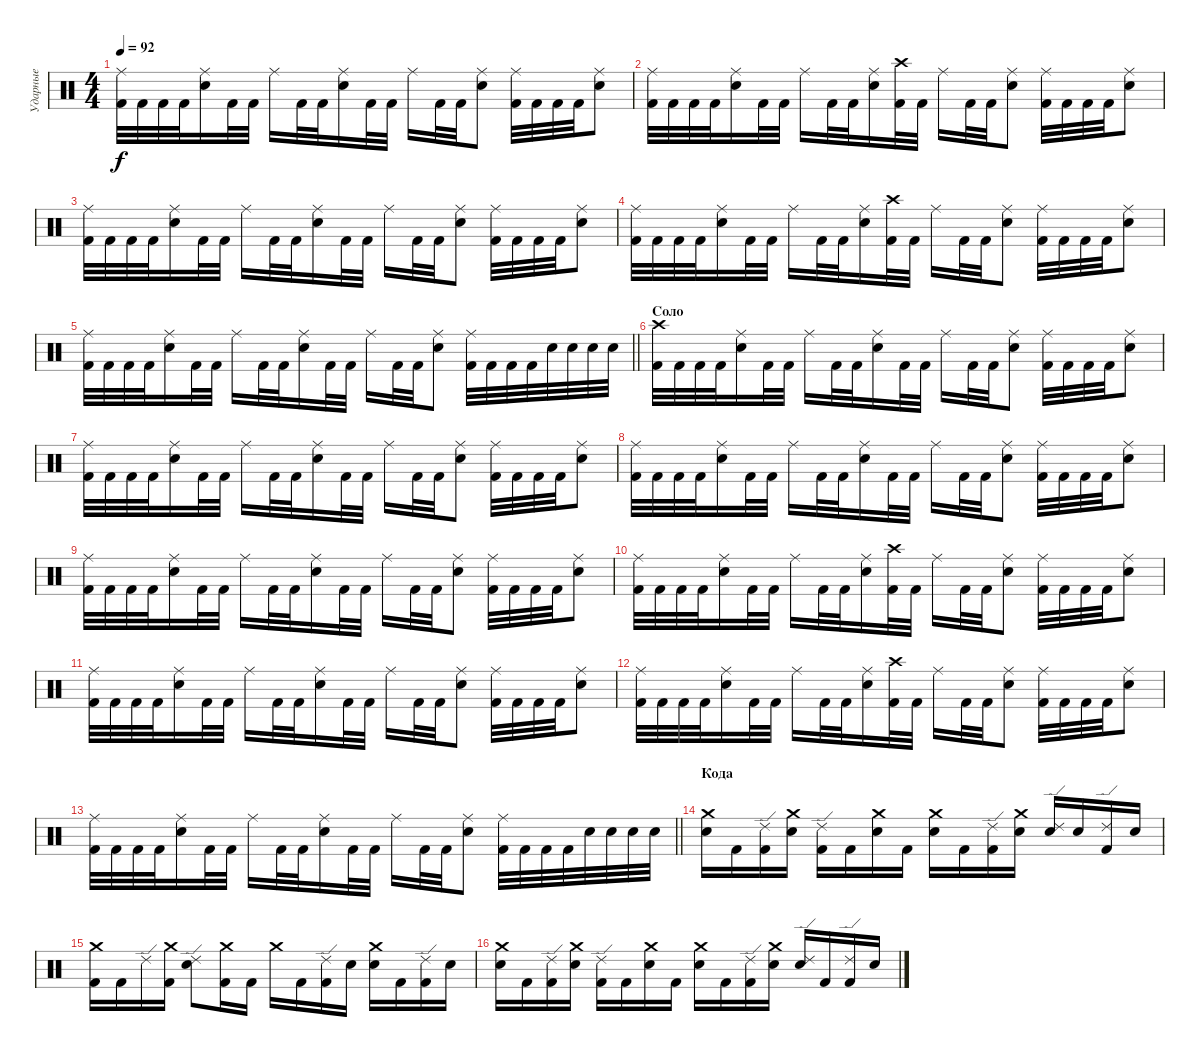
\track ("Ударные" "Ударные") {instrument percussion}
\staff {score}
\articulation defaults
\ts (4 4)
\tempo 92
\clef neutral
\ks c
("Ride (middle)" "Kick (hit) 2").32{dy f} "Kick (hit) 2".32 "Kick (hit) 2".32 "Kick (hit) 2".32 ("Ride (middle)" "Electric Snare (hit)").16 "Kick (hit) 2".32 "Kick (hit) 2".32 "Ride (middle)".16 "Kick (hit) 2".32 "Kick (hit) 2".32 ("Electric Snare (hit)" "Ride (middle)").16 "Kick (hit) 2".32 "Kick (hit) 2".32 "Ride (middle)".16 "Kick (hit) 2".32 "Kick (hit) 2".32 ("Electric Snare (hit)" "Ride (middle)").8 ("Kick (hit) 2" "Ride (middle)").32 "Kick (hit) 2".32 "Kick (hit) 2".32 "Kick (hit) 2".32 ("Electric Snare (hit)" "Ride (middle)").8 |
("Ride (middle)" "Kick (hit) 2").32 "Kick (hit) 2".32 "Kick (hit) 2".32 "Kick (hit) 2".32 ("Ride (middle)" "Electric Snare (hit)").16 "Kick (hit) 2".32 "Kick (hit) 2".32 "Ride (middle)".16 "Kick (hit) 2".32 "Kick (hit) 2".32 ("Electric Snare (hit)" "Ride (middle)").16 ("Crash high (hit)" "Kick (hit) 2").32 "Kick (hit) 2".32 "Ride (middle)".16 "Kick (hit) 2".32 "Kick (hit) 2".32 ("Electric Snare (hit)" "Ride (middle)").8 ("Kick (hit) 2" "Ride (middle)").32 "Kick (hit) 2".32 "Kick (hit) 2".32 "Kick (hit) 2".32 ("Electric Snare (hit)" "Ride (middle)").8 |
("Ride (middle)" "Kick (hit) 2").32 "Kick (hit) 2".32 "Kick (hit) 2".32 "Kick (hit) 2".32 ("Ride (middle)" "Electric Snare (hit)").16 "Kick (hit) 2".32 "Kick (hit) 2".32 "Ride (middle)".16 "Kick (hit) 2".32 "Kick (hit) 2".32 ("Electric Snare (hit)" "Ride (middle)").16 "Kick (hit) 2".32 "Kick (hit) 2".32 "Ride (middle)".16 "Kick (hit) 2".32 "Kick (hit) 2".32 ("Electric Snare (hit)" "Ride (middle)").8 ("Kick (hit) 2" "Ride (middle)").32 "Kick (hit) 2".32 "Kick (hit) 2".32 "Kick (hit) 2".32 ("Electric Snare (hit)" "Ride (middle)").8 |
("Ride (middle)" "Kick (hit) 2").32 "Kick (hit) 2".32 "Kick (hit) 2".32 "Kick (hit) 2".32 ("Ride (middle)" "Electric Snare (hit)").16 "Kick (hit) 2".32 "Kick (hit) 2".32 "Ride (middle)".16 "Kick (hit) 2".32 "Kick (hit) 2".32 ("Electric Snare (hit)" "Ride (middle)").16 ("Crash high (hit)" "Kick (hit) 2").32 "Kick (hit) 2".32 "Ride (middle)".16 "Kick (hit) 2".32 "Kick (hit) 2".32 ("Electric Snare (hit)" "Ride (middle)").8 ("Kick (hit) 2" "Ride (middle)").32 "Kick (hit) 2".32 "Kick (hit) 2".32 "Kick (hit) 2".32 ("Electric Snare (hit)" "Ride (middle)").8 |
\barLineRight lightlight
("Ride (middle)" "Kick (hit) 2").32 "Kick (hit) 2".32 "Kick (hit) 2".32 "Kick (hit) 2".32 ("Ride (middle)" "Electric Snare (hit)").16 "Kick (hit) 2".32 "Kick (hit) 2".32 "Ride (middle)".16 "Kick (hit) 2".32 "Kick (hit) 2".32 ("Electric Snare (hit)" "Ride (middle)").16 "Kick (hit) 2".32 "Kick (hit) 2".32 "Ride (middle)".16 "Kick (hit) 2".32 "Kick (hit) 2".32 ("Electric Snare (hit)" "Ride (middle)").8 ("Kick (hit) 2" "Ride (middle)").32 "Kick (hit) 2".32 "Kick (hit) 2".32 "Kick (hit) 2".32 "Electric Snare (hit)".32 "Electric Snare (hit)".32 "Electric Snare (hit)".32 "Electric Snare (hit)".32 |
\section ("" "Соло")
("Crash high (hit)" "Kick (hit) 2").32 "Kick (hit) 2".32 "Kick (hit) 2".32 "Kick (hit) 2".32 ("Ride (middle)" "Electric Snare (hit)").16 "Kick (hit) 2".32 "Kick (hit) 2".32 "Ride (middle)".16 "Kick (hit) 2".32 "Kick (hit) 2".32 ("Electric Snare (hit)" "Ride (middle)").16 "Kick (hit) 2".32 "Kick (hit) 2".32 "Ride (middle)".16 "Kick (hit) 2".32 "Kick (hit) 2".32 ("Electric Snare (hit)" "Ride (middle)").8 ("Kick (hit) 2" "Ride (middle)").32 "Kick (hit) 2".32 "Kick (hit) 2".32 "Kick (hit) 2".32 ("Electric Snare (hit)" "Ride (middle)").8 |
("Ride (middle)" "Kick (hit) 2").32 "Kick (hit) 2".32 "Kick (hit) 2".32 "Kick (hit) 2".32 ("Ride (middle)" "Electric Snare (hit)").16 "Kick (hit) 2".32 "Kick (hit) 2".32 "Ride (middle)".16 "Kick (hit) 2".32 "Kick (hit) 2".32 ("Electric Snare (hit)" "Ride (middle)").16 "Kick (hit) 2".32 "Kick (hit) 2".32 "Ride (middle)".16 "Kick (hit) 2".32 "Kick (hit) 2".32 ("Electric Snare (hit)" "Ride (middle)").8 ("Kick (hit) 2" "Ride (middle)").32 "Kick (hit) 2".32 "Kick (hit) 2".32 "Kick (hit) 2".32 ("Electric Snare (hit)" "Ride (middle)").8 |
("Ride (middle)" "Kick (hit) 2").32 "Kick (hit) 2".32 "Kick (hit) 2".32 "Kick (hit) 2".32 ("Ride (middle)" "Electric Snare (hit)").16 "Kick (hit) 2".32 "Kick (hit) 2".32 "Ride (middle)".16 "Kick (hit) 2".32 "Kick (hit) 2".32 ("Electric Snare (hit)" "Ride (middle)").16 "Kick (hit) 2".32 "Kick (hit) 2".32 "Ride (middle)".16 "Kick (hit) 2".32 "Kick (hit) 2".32 ("Electric Snare (hit)" "Ride (middle)").8 ("Kick (hit) 2" "Ride (middle)").32 "Kick (hit) 2".32 "Kick (hit) 2".32 "Kick (hit) 2".32 ("Electric Snare (hit)" "Ride (middle)").8 |
("Ride (middle)" "Kick (hit) 2").32 "Kick (hit) 2".32 "Kick (hit) 2".32 "Kick (hit) 2".32 ("Ride (middle)" "Electric Snare (hit)").16 "Kick (hit) 2".32 "Kick (hit) 2".32 "Ride (middle)".16 "Kick (hit) 2".32 "Kick (hit) 2".32 ("Electric Snare (hit)" "Ride (middle)").16 "Kick (hit) 2".32 "Kick (hit) 2".32 "Ride (middle)".16 "Kick (hit) 2".32 "Kick (hit) 2".32 ("Electric Snare (hit)" "Ride (middle)").8 ("Kick (hit) 2" "Ride (middle)").32 "Kick (hit) 2".32 "Kick (hit) 2".32 "Kick (hit) 2".32 ("Electric Snare (hit)" "Ride (middle)").8 |
("Ride (middle)" "Kick (hit) 2").32 "Kick (hit) 2".32 "Kick (hit) 2".32 "Kick (hit) 2".32 ("Ride (middle)" "Electric Snare (hit)").16 "Kick (hit) 2".32 "Kick (hit) 2".32 "Ride (middle)".16 "Kick (hit) 2".32 "Kick (hit) 2".32 ("Electric Snare (hit)" "Ride (middle)").16 ("Crash high (hit)" "Kick (hit) 2").32 "Kick (hit) 2".32 "Ride (middle)".16 "Kick (hit) 2".32 "Kick (hit) 2".32 ("Electric Snare (hit)" "Ride (middle)").8 ("Kick (hit) 2" "Ride (middle)").32 "Kick (hit) 2".32 "Kick (hit) 2".32 "Kick (hit) 2".32 ("Electric Snare (hit)" "Ride (middle)").8 |
("Ride (middle)" "Kick (hit) 2").32 "Kick (hit) 2".32 "Kick (hit) 2".32 "Kick (hit) 2".32 ("Ride (middle)" "Electric Snare (hit)").16 "Kick (hit) 2".32 "Kick (hit) 2".32 "Ride (middle)".16 "Kick (hit) 2".32 "Kick (hit) 2".32 ("Electric Snare (hit)" "Ride (middle)").16 "Kick (hit) 2".32 "Kick (hit) 2".32 "Ride (middle)".16 "Kick (hit) 2".32 "Kick (hit) 2".32 ("Electric Snare (hit)" "Ride (middle)").8 ("Kick (hit) 2" "Ride (middle)").32 "Kick (hit) 2".32 "Kick (hit) 2".32 "Kick (hit) 2".32 ("Electric Snare (hit)" "Ride (middle)").8 |
("Ride (middle)" "Kick (hit) 2").32 "Kick (hit) 2".32 "Kick (hit) 2".32 "Kick (hit) 2".32 ("Ride (middle)" "Electric Snare (hit)").16 "Kick (hit) 2".32 "Kick (hit) 2".32 "Ride (middle)".16 "Kick (hit) 2".32 "Kick (hit) 2".32 ("Electric Snare (hit)" "Ride (middle)").16 ("Crash high (hit)" "Kick (hit) 2").32 "Kick (hit) 2".32 "Ride (middle)".16 "Kick (hit) 2".32 "Kick (hit) 2".32 ("Electric Snare (hit)" "Ride (middle)").8 ("Kick (hit) 2" "Ride (middle)").32 "Kick (hit) 2".32 "Kick (hit) 2".32 "Kick (hit) 2".32 ("Electric Snare (hit)" "Ride (middle)").8 |
\barLineRight lightlight
("Ride (middle)" "Kick (hit) 2").32 "Kick (hit) 2".32 "Kick (hit) 2".32 "Kick (hit) 2".32 ("Ride (middle)" "Electric Snare (hit)").16 "Kick (hit) 2".32 "Kick (hit) 2".32 "Ride (middle)".16 "Kick (hit) 2".32 "Kick (hit) 2".32 ("Electric Snare (hit)" "Ride (middle)").16 "Kick (hit) 2".32 "Kick (hit) 2".32 "Ride (middle)".16 "Kick (hit) 2".32 "Kick (hit) 2".32 ("Electric Snare (hit)" "Ride (middle)").8 ("Kick (hit) 2" "Ride (middle)").32 "Kick (hit) 2".32 "Kick (hit) 2".32 "Kick (hit) 2".32 "Electric Snare (hit)".32 "Electric Snare (hit)".32 "Electric Snare (hit)".32 "Electric Snare (hit)".32 |
\section ("" "Кода")
("Crash medium (hit)" "Electric Snare (hit)").16 "Kick (hit) 2".16 ("Ride (edge) 2" "Kick (hit) 2").16 ("Crash medium (hit)" "Electric Snare (hit)").16 ("Ride (edge) 2" "Kick (hit) 2").16 "Kick (hit) 2".16 ("Crash medium (hit)" "Electric Snare (hit)").16 "Kick (hit) 2".16 ("Crash medium (hit)" "Electric Snare (hit)").16 "Kick (hit) 2".16 ("Ride (edge) 2" "Kick (hit) 2").16 ("Crash medium (hit)" "Electric Snare (hit)").16 ("Ride (edge) 2" "Electric Snare (hit)").16 "Electric Snare (hit)".16 ("Ride (edge) 2" "Kick (hit) 2").16 "Electric Snare (hit)".16 |
("Crash medium (hit)" "Kick (hit) 2").16 "Kick (hit) 2".16 "Ride (edge) 2".16 ("Crash medium (hit)" "Kick (hit) 2").16 ("Ride (edge) 2" "Electric Snare (hit)").8 ("Crash medium (hit)" "Kick (hit) 2").16 "Kick (hit) 2".16 "Crash medium (hit)".16 "Kick (hit) 2".16 ("Ride (edge) 2" "Kick (hit) 2").16 "Electric Snare (hit)".16 ("Crash medium (hit)" "Electric Snare (hit)").16 "Kick (hit) 2".16 ("Ride (edge) 2" "Kick (hit) 2").16 "Electric Snare (hit)".16 |
("Crash medium (hit)" "Electric Snare (hit)").16 "Kick (hit) 2".16 ("Ride (edge) 2" "Kick (hit) 2").16 ("Crash medium (hit)" "Electric Snare (hit)").16 ("Ride (edge) 2" "Kick (hit) 2").16 "Kick (hit) 2".16 ("Crash medium (hit)" "Electric Snare (hit)").16 "Kick (hit) 2".16 ("Crash medium (hit)" "Electric Snare (hit)").16 "Kick (hit) 2".16 ("Ride (edge) 2" "Kick (hit) 2").16 ("Crash medium (hit)" "Electric Snare (hit)").16 ("Ride (edge) 2" "Electric Snare (hit)").16 "Kick (hit) 2".16 ("Ride (edge) 2" "Kick (hit) 2").16 "Electric Snare (hit)".16
